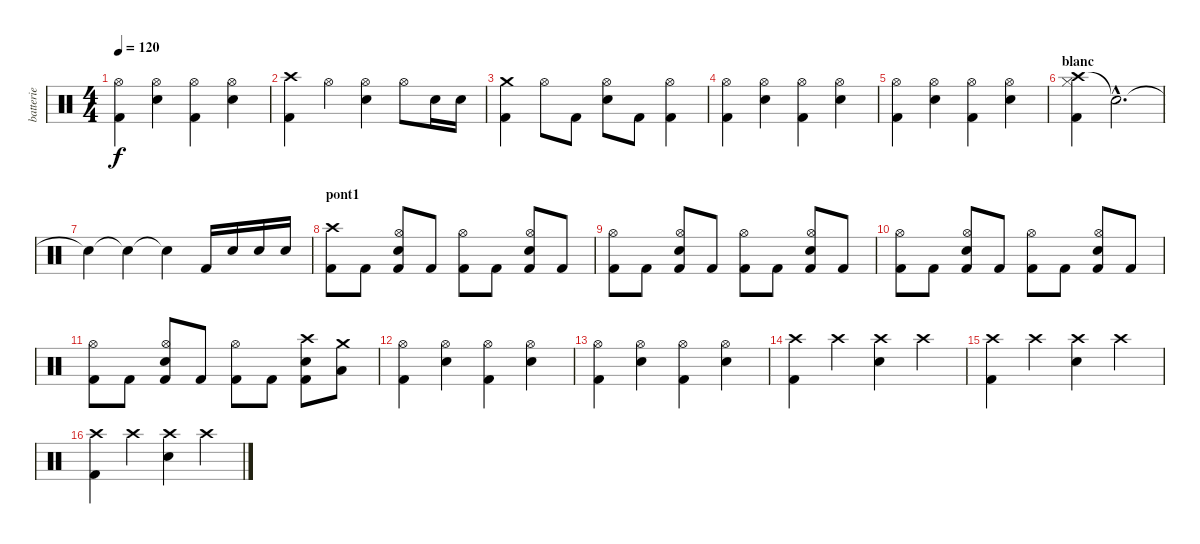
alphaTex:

\track ("batterie" "batterie") {instrument percussion}
\staff {score}
\articulation defaults
\ts (4 4)
\tempo 120
\clef neutral
\ks c
("Kick (hit) 2" "Hi-Hat (open)").4{dy f} ("Snare (hit) 2" "Hi-Hat (open)").4 ("Kick (hit) 2" "Hi-Hat (open)").4 ("Snare (hit) 2" "Hi-Hat (open)").4 |
("Crash high (hit)" "Kick (hit) 2").4 "Hi-Hat (open)".4 ("Snare (hit) 2" "Hi-Hat (open)").4 "Hi-Hat (open)".8 "Snare (hit) 2".16 "Snare (hit) 2".16 |
("Crash medium (hit)" "Kick (hit) 2").4 "Hi-Hat (open)".8 "Kick (hit) 2".8 ("Snare (hit) 2" "Hi-Hat (open)").8 "Kick (hit) 2".8 ("Kick (hit) 2" "Hi-Hat (open)").4 |
("Kick (hit) 2" "Hi-Hat (open)").4 ("Snare (hit) 2" "Hi-Hat (open)").4 ("Kick (hit) 2" "Hi-Hat (open)").4 ("Snare (hit) 2" "Hi-Hat (open)").4 |
("Kick (hit) 2" "Hi-Hat (open)").4 ("Snare (hit) 2" "Hi-Hat (open)").4 ("Kick (hit) 2" "Hi-Hat (open)").4 ("Snare (hit) 2" "Hi-Hat (open)").4 |
\section ("" "blanc")
("Crash high (hit)" "Kick (hit) 2" "Hi-Hat (closed)").4 "Snare (hit)"{hac t}.2{d} |
"Snare (hit)"{t}.4 "Snare (hit)"{t}.4 "Snare (hit)"{t}.4 "Kick (hit) 2".16 "Snare (hit) 2".16 "Snare (hit) 2".16 "Snare (hit) 2".16 |
\section ("" "pont1")
("Crash high (hit)" "Kick (hit) 2").8 "Kick (hit) 2".8 ("Snare (hit) 2" "Kick (hit) 2" "Hi-Hat (open)").8 "Kick (hit) 2".8 ("Kick (hit) 2" "Hi-Hat (open)").8 "Kick (hit) 2".8 ("Snare (hit) 2" "Kick (hit) 2" "Hi-Hat (open)").8 "Kick (hit) 2".8 |
("Kick (hit) 2" "Hi-Hat (open)").8 "Kick (hit) 2".8 ("Snare (hit) 2" "Kick (hit) 2" "Hi-Hat (open)").8 "Kick (hit) 2".8 ("Kick (hit) 2" "Hi-Hat (open)").8 "Kick (hit) 2".8 ("Snare (hit) 2" "Kick (hit) 2" "Hi-Hat (open)").8 "Kick (hit) 2".8 |
("Kick (hit) 2" "Hi-Hat (open)").8 "Kick (hit) 2".8 ("Snare (hit) 2" "Kick (hit) 2" "Hi-Hat (open)").8 "Kick (hit) 2".8 ("Kick (hit) 2" "Hi-Hat (open)").8 "Kick (hit) 2".8 ("Snare (hit) 2" "Kick (hit) 2" "Hi-Hat (open)").8 "Kick (hit) 2".8 |
("Kick (hit) 2" "Hi-Hat (open)").8 "Kick (hit) 2".8 ("Snare (hit) 2" "Kick (hit) 2" "Hi-Hat (open)").8 "Kick (hit) 2".8 ("Kick (hit) 2" "Hi-Hat (open)").8 "Kick (hit) 2".8 ("Crash high (hit)" "Snare (hit) 2" "Kick (hit) 2").8 ("Crash medium (hit)" "Low Tom (hit)").8 |
("Kick (hit) 2" "Hi-Hat (open)").4 ("Snare (hit) 2" "Hi-Hat (open)").4 ("Kick (hit) 2" "Hi-Hat (open)").4 ("Snare (hit) 2" "Hi-Hat (open)").4 |
("Kick (hit) 2" "Hi-Hat (open)").4 ("Snare (hit) 2" "Hi-Hat (open)").4 ("Kick (hit) 2" "Hi-Hat (open)").4 ("Snare (hit) 2" "Hi-Hat (open)").4 |
("Crash high (hit)" "Kick (hit) 2").4 "Crash high (hit)".4 ("Crash high (hit)" "Snare (hit) 2").4 "Crash high (hit)".4 |
("Crash high (hit)" "Kick (hit) 2").4 "Crash high (hit)".4 ("Crash high (hit)" "Snare (hit) 2").4 "Crash high (hit)".4 |
("Crash high (hit)" "Kick (hit) 2").4 "Crash high (hit)".4 ("Crash high (hit)" "Snare (hit) 2").4 "Crash high (hit)".4
